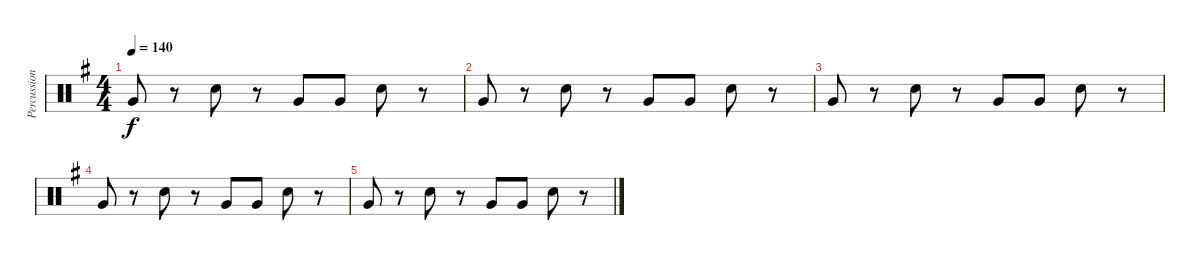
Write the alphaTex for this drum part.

\track ("Percussion" "Percussion") {instrument percussion}
\staff {score}
\articulation defaults
\ts (4 4)
\tempo 140
\clef neutral
\ks g "Very Low Tom (hit)".8{dy f}
r.8 "Electric Snare (hit)".8 r.8 "Very Low Tom (hit)".8 "Very Low Tom (hit)".8 "Electric Snare (hit)".8 r.8 |
"Very Low Tom (hit)".8 r.8 "Electric Snare (hit)".8 r.8 "Very Low Tom (hit)".8 "Very Low Tom (hit)".8 "Electric Snare (hit)".8 r.8 |
"Very Low Tom (hit)".8 r.8 "Electric Snare (hit)".8 r.8 "Very Low Tom (hit)".8 "Very Low Tom (hit)".8 "Electric Snare (hit)".8 r.8 |
"Very Low Tom (hit)".8 r.8 "Electric Snare (hit)".8 r.8 "Very Low Tom (hit)".8 "Very Low Tom (hit)".8 "Electric Snare (hit)".8 r.8 |
"Very Low Tom (hit)".8 r.8 "Electric Snare (hit)".8 r.8 "Very Low Tom (hit)".8 "Very Low Tom (hit)".8 "Electric Snare (hit)".8 r.8
